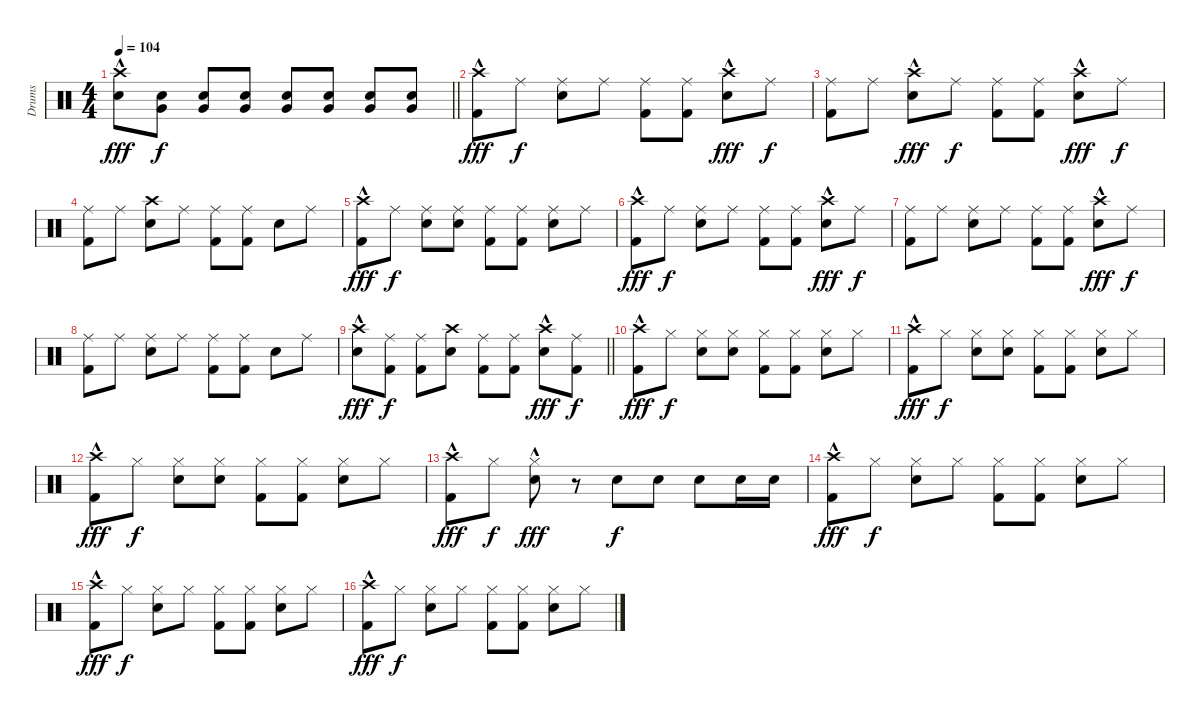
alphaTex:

\track ("Drums" "Drums") {instrument percussion}
\staff {score}
\articulation defaults
\ts (4 4)
\tempo 104
\clef neutral
\barLineRight lightlight
\ks c
("Crash high (hit)"{hac} "Snare (hit) 2").8{dy fff} ("Snare (hit) 2" "Very Low Tom (hit)").8{dy f} ("Snare (hit) 2" "Very Low Tom (hit)").8 ("Snare (hit) 2" "Very Low Tom (hit)").8 ("Snare (hit) 2" "Very Low Tom (hit)").8 ("Snare (hit) 2" "Very Low Tom (hit)").8 ("Snare (hit) 2" "Very Low Tom (hit)").8 ("Snare (hit) 2" "Very Low Tom (hit)").8 |
("Crash high (hit)"{hac} "Kick (hit) 2").8{dy fff} "Ride (middle)".8{dy f} ("Ride (middle)" "Snare (hit) 2").8 "Ride (middle)".8 ("Ride (middle)" "Kick (hit) 2").8 ("Ride (middle)" "Kick (hit) 2").8 ("Crash high (hit)"{hac} "Snare (hit) 2").8{dy fff} "Ride (middle)".8{dy f} |
("Ride (middle)" "Kick (hit) 2").8 "Ride (middle)".8 ("Crash high (hit)"{hac} "Snare (hit) 2").8{dy fff} "Ride (middle)".8{dy f} ("Ride (middle)" "Kick (hit) 2").8 ("Ride (middle)" "Kick (hit) 2").8 ("Crash high (hit)"{hac} "Snare (hit) 2").8{dy fff} "Ride (middle)".8{dy f} |
("Ride (middle)" "Kick (hit) 2").8 "Ride (middle)".8 ("Crash high (hit)" "Snare (hit) 2").8 "Ride (middle)".8 ("Ride (middle)" "Kick (hit) 2").8 ("Ride (middle)" "Kick (hit) 2").8 "Snare (hit) 2".8 "Ride (middle)".8 |
("Crash high (hit)"{hac} "Kick (hit) 2").8{dy fff} "Ride (middle)".8{dy f} ("Ride (middle)" "Snare (hit) 2").8 ("Ride (middle)" "Snare (hit) 2").8 ("Ride (middle)" "Kick (hit) 2").8 ("Ride (middle)" "Kick (hit) 2").8 ("Ride (middle)" "Snare (hit) 2").8 "Ride (middle)".8 |
("Crash high (hit)"{hac} "Kick (hit) 2").8{dy fff} "Ride (middle)".8{dy f} ("Ride (middle)" "Snare (hit) 2").8 "Ride (middle)".8 ("Ride (middle)" "Kick (hit) 2").8 ("Ride (middle)" "Kick (hit) 2").8 ("Crash high (hit)"{hac} "Snare (hit) 2").8{dy fff} "Ride (middle)".8{dy f} |
("Ride (middle)" "Kick (hit) 2").8 "Ride (middle)".8 ("Ride (middle)" "Snare (hit) 2").8 "Ride (middle)".8 ("Ride (middle)" "Kick (hit) 2").8 ("Ride (middle)" "Kick (hit) 2").8 ("Crash high (hit)"{hac} "Snare (hit) 2").8{dy fff} "Ride (middle)".8{dy f} |
("Ride (middle)" "Kick (hit) 2").8 "Ride (middle)".8 ("Ride (middle)" "Snare (hit) 2").8 "Ride (middle)".8 ("Ride (middle)" "Kick (hit) 2").8 ("Ride (middle)" "Kick (hit) 2").8 "Snare (hit) 2".8 "Ride (middle)".8 |
\barLineRight lightlight
("Crash high (hit)"{hac} "Snare (hit) 2").8{dy fff} ("Ride (middle)" "Kick (hit) 2").8{dy f} ("Ride (middle)" "Kick (hit) 2").8 ("Crash high (hit)" "Snare (hit) 2").8 ("Ride (middle)" "Kick (hit) 2").8 ("Ride (middle)" "Kick (hit) 2").8 ("Crash high (hit)"{hac} "Snare (hit) 2").8{dy fff} ("Ride (middle)" "Kick (hit) 2").8{dy f} |
("Crash high (hit)"{hac} "Kick (hit) 2").8{dy fff} "Hi-Hat (closed)".8{dy f} ("Hi-Hat (closed)" "Snare (hit) 2").8 ("Hi-Hat (closed)" "Snare (hit) 2").8 ("Hi-Hat (closed)" "Kick (hit) 2").8 ("Hi-Hat (closed)" "Kick (hit) 2").8 ("Hi-Hat (closed)" "Snare (hit) 2").8 "Hi-Hat (closed)".8 |
("Crash high (hit)"{hac} "Kick (hit) 2").8{dy fff} "Hi-Hat (closed)".8{dy f} ("Hi-Hat (closed)" "Snare (hit) 2").8 ("Hi-Hat (closed)" "Snare (hit) 2").8 ("Hi-Hat (closed)" "Kick (hit) 2").8 ("Hi-Hat (closed)" "Kick (hit) 2").8 ("Hi-Hat (closed)" "Snare (hit) 2").8 "Hi-Hat (closed)".8 |
("Crash high (hit)"{hac} "Kick (hit) 2").8{dy fff} "Hi-Hat (closed)".8{dy f} ("Hi-Hat (closed)" "Snare (hit) 2").8 ("Hi-Hat (closed)" "Snare (hit) 2").8 ("Hi-Hat (closed)" "Kick (hit) 2").8 ("Hi-Hat (closed)" "Kick (hit) 2").8 ("Hi-Hat (closed)" "Snare (hit) 2").8 "Hi-Hat (closed)".8 |
("Crash high (hit)"{hac} "Kick (hit) 2").8{dy fff} "Hi-Hat (closed)".8{dy f} ("Hi-Hat (closed)"{hac} "Snare (hit) 2").8{dy fff} r.8 "Snare (hit) 2".8{dy f} "Snare (hit) 2".8 "Snare (hit) 2".8 "Snare (hit) 2".16 "Snare (hit) 2".16 |
("Crash high (hit)"{hac} "Kick (hit) 2").8{dy fff} "Hi-Hat (closed)".8{dy f} ("Hi-Hat (closed)" "Snare (hit) 2").8 "Hi-Hat (closed)".8 ("Hi-Hat (closed)" "Kick (hit) 2").8 ("Hi-Hat (closed)" "Kick (hit) 2").8 ("Hi-Hat (closed)" "Snare (hit) 2").8 "Hi-Hat (closed)".8 |
("Crash high (hit)"{hac} "Kick (hit) 2").8{dy fff} "Hi-Hat (closed)".8{dy f} ("Hi-Hat (closed)" "Snare (hit) 2").8 "Hi-Hat (closed)".8 ("Hi-Hat (closed)" "Kick (hit) 2").8 ("Hi-Hat (closed)" "Kick (hit) 2").8 ("Hi-Hat (closed)" "Snare (hit) 2").8 "Hi-Hat (closed)".8 |
("Crash high (hit)"{hac} "Kick (hit) 2").8{dy fff} "Hi-Hat (closed)".8{dy f} ("Hi-Hat (closed)" "Snare (hit) 2").8 "Hi-Hat (closed)".8 ("Hi-Hat (closed)" "Kick (hit) 2").8 ("Hi-Hat (closed)" "Kick (hit) 2").8 ("Hi-Hat (closed)" "Snare (hit) 2").8 "Hi-Hat (closed)".8
